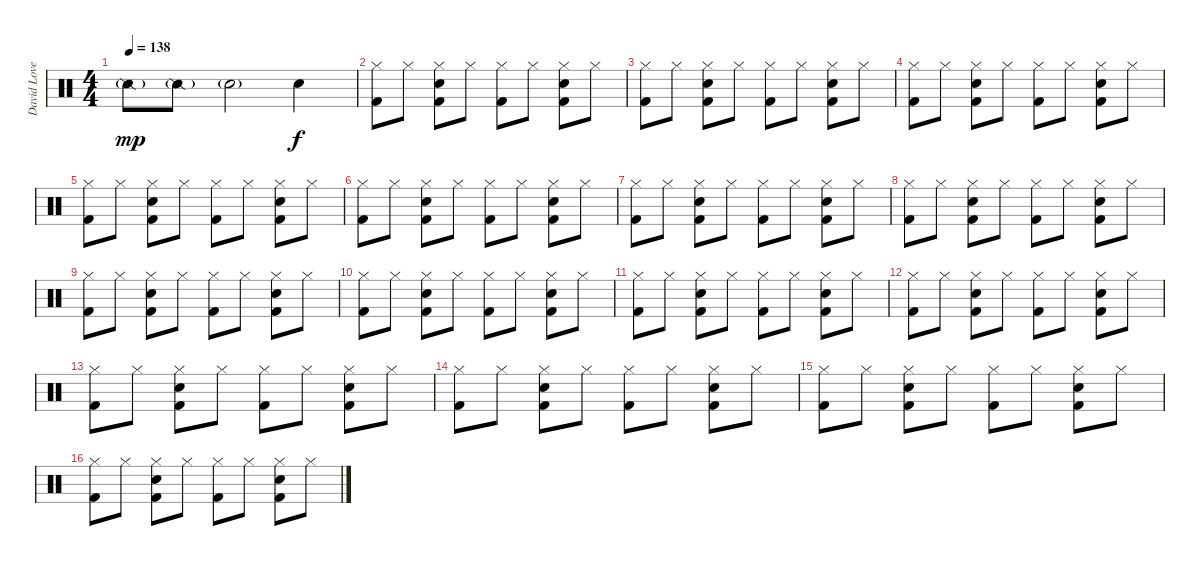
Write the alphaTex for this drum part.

\track ("David Lovering" "David Love") {instrument percussion}
\staff {score}
\articulation defaults
\ts (4 4)
\tempo 138
\clef neutral
\ks c "Snare (side stick) 2"{g}.8{dy mp} "Snare (side stick) 2"{g}.8 "Electric Snare (hit)"{g}.2 "Electric Snare (hit)".4{dy f}
|
("Hi-Hat (closed)" "Kick (hit) 2").8 "Hi-Hat (closed)".8 ("Hi-Hat (closed)" "Electric Snare (hit)" "Kick (hit) 2").8 "Hi-Hat (closed)".8 ("Hi-Hat (closed)" "Kick (hit) 2").8 "Hi-Hat (closed)".8 ("Hi-Hat (closed)" "Electric Snare (hit)" "Kick (hit) 2").8 "Hi-Hat (closed)".8 |
("Hi-Hat (closed)" "Kick (hit) 2").8 "Hi-Hat (closed)".8 ("Hi-Hat (closed)" "Electric Snare (hit)" "Kick (hit) 2").8 "Hi-Hat (closed)".8 ("Hi-Hat (closed)" "Kick (hit) 2").8 "Hi-Hat (closed)".8 ("Hi-Hat (closed)" "Electric Snare (hit)" "Kick (hit) 2").8 "Hi-Hat (closed)".8 |
("Hi-Hat (closed)" "Kick (hit) 2").8 "Hi-Hat (closed)".8 ("Hi-Hat (closed)" "Electric Snare (hit)" "Kick (hit) 2").8 "Hi-Hat (closed)".8 ("Hi-Hat (closed)" "Kick (hit) 2").8 "Hi-Hat (closed)".8 ("Hi-Hat (closed)" "Electric Snare (hit)" "Kick (hit) 2").8 "Hi-Hat (closed)".8 |
\section ("" "")
("Hi-Hat (closed)" "Kick (hit) 2").8 "Hi-Hat (closed)".8 ("Hi-Hat (closed)" "Electric Snare (hit)" "Kick (hit) 2").8 "Hi-Hat (closed)".8 ("Hi-Hat (closed)" "Kick (hit) 2").8 "Hi-Hat (closed)".8 ("Hi-Hat (closed)" "Electric Snare (hit)" "Kick (hit) 2").8 "Hi-Hat (closed)".8 |
("Hi-Hat (closed)" "Kick (hit) 2").8 "Hi-Hat (closed)".8 ("Hi-Hat (closed)" "Electric Snare (hit)" "Kick (hit) 2").8 "Hi-Hat (closed)".8 ("Hi-Hat (closed)" "Kick (hit) 2").8 "Hi-Hat (closed)".8 ("Hi-Hat (closed)" "Electric Snare (hit)" "Kick (hit) 2").8 "Hi-Hat (closed)".8 |
("Hi-Hat (closed)" "Kick (hit) 2").8 "Hi-Hat (closed)".8 ("Hi-Hat (closed)" "Electric Snare (hit)" "Kick (hit) 2").8 "Hi-Hat (closed)".8 ("Hi-Hat (closed)" "Kick (hit) 2").8 "Hi-Hat (closed)".8 ("Hi-Hat (closed)" "Electric Snare (hit)" "Kick (hit) 2").8 "Hi-Hat (closed)".8 |
("Hi-Hat (closed)" "Kick (hit) 2").8 "Hi-Hat (closed)".8 ("Hi-Hat (closed)" "Electric Snare (hit)" "Kick (hit) 2").8 "Hi-Hat (closed)".8 ("Hi-Hat (closed)" "Kick (hit) 2").8 "Hi-Hat (closed)".8 ("Hi-Hat (closed)" "Electric Snare (hit)" "Kick (hit) 2").8 "Hi-Hat (closed)".8 |
("Hi-Hat (closed)" "Kick (hit) 2").8 "Hi-Hat (closed)".8 ("Hi-Hat (closed)" "Electric Snare (hit)" "Kick (hit) 2").8 "Hi-Hat (closed)".8 ("Hi-Hat (closed)" "Kick (hit) 2").8 "Hi-Hat (closed)".8 ("Hi-Hat (closed)" "Electric Snare (hit)" "Kick (hit) 2").8 "Hi-Hat (closed)".8 |
("Hi-Hat (closed)" "Kick (hit) 2").8 "Hi-Hat (closed)".8 ("Hi-Hat (closed)" "Electric Snare (hit)" "Kick (hit) 2").8 "Hi-Hat (closed)".8 ("Hi-Hat (closed)" "Kick (hit) 2").8 "Hi-Hat (closed)".8 ("Hi-Hat (closed)" "Electric Snare (hit)" "Kick (hit) 2").8 "Hi-Hat (closed)".8 |
("Hi-Hat (closed)" "Kick (hit) 2").8 "Hi-Hat (closed)".8 ("Hi-Hat (closed)" "Electric Snare (hit)" "Kick (hit) 2").8 "Hi-Hat (closed)".8 ("Hi-Hat (closed)" "Kick (hit) 2").8 "Hi-Hat (closed)".8 ("Hi-Hat (closed)" "Electric Snare (hit)" "Kick (hit) 2").8 "Hi-Hat (closed)".8 |
("Hi-Hat (closed)" "Kick (hit) 2").8 "Hi-Hat (closed)".8 ("Hi-Hat (closed)" "Electric Snare (hit)" "Kick (hit) 2").8 "Hi-Hat (closed)".8 ("Hi-Hat (closed)" "Kick (hit) 2").8 "Hi-Hat (closed)".8 ("Hi-Hat (closed)" "Electric Snare (hit)" "Kick (hit) 2").8 "Hi-Hat (closed)".8 |
("Hi-Hat (closed)" "Kick (hit) 2").8 "Hi-Hat (closed)".8 ("Hi-Hat (closed)" "Electric Snare (hit)" "Kick (hit) 2").8 "Hi-Hat (closed)".8 ("Hi-Hat (closed)" "Kick (hit) 2").8 "Hi-Hat (closed)".8 ("Hi-Hat (closed)" "Electric Snare (hit)" "Kick (hit) 2").8 "Hi-Hat (closed)".8 |
\section ("" "")
("Hi-Hat (closed)" "Kick (hit) 2").8 "Hi-Hat (closed)".8 ("Hi-Hat (closed)" "Electric Snare (hit)" "Kick (hit) 2").8 "Hi-Hat (closed)".8 ("Hi-Hat (closed)" "Kick (hit) 2").8 "Hi-Hat (closed)".8 ("Hi-Hat (closed)" "Electric Snare (hit)" "Kick (hit) 2").8 "Hi-Hat (closed)".8 |
("Hi-Hat (closed)" "Kick (hit) 2").8 "Hi-Hat (closed)".8 ("Hi-Hat (closed)" "Electric Snare (hit)" "Kick (hit) 2").8 "Hi-Hat (closed)".8 ("Hi-Hat (closed)" "Kick (hit) 2").8 "Hi-Hat (closed)".8 ("Hi-Hat (closed)" "Electric Snare (hit)" "Kick (hit) 2").8 "Hi-Hat (closed)".8 |
("Hi-Hat (closed)" "Kick (hit) 2").8 "Hi-Hat (closed)".8 ("Hi-Hat (closed)" "Electric Snare (hit)" "Kick (hit) 2").8 "Hi-Hat (closed)".8 ("Hi-Hat (closed)" "Kick (hit) 2").8 "Hi-Hat (closed)".8 ("Hi-Hat (closed)" "Electric Snare (hit)" "Kick (hit) 2").8 "Hi-Hat (closed)".8
